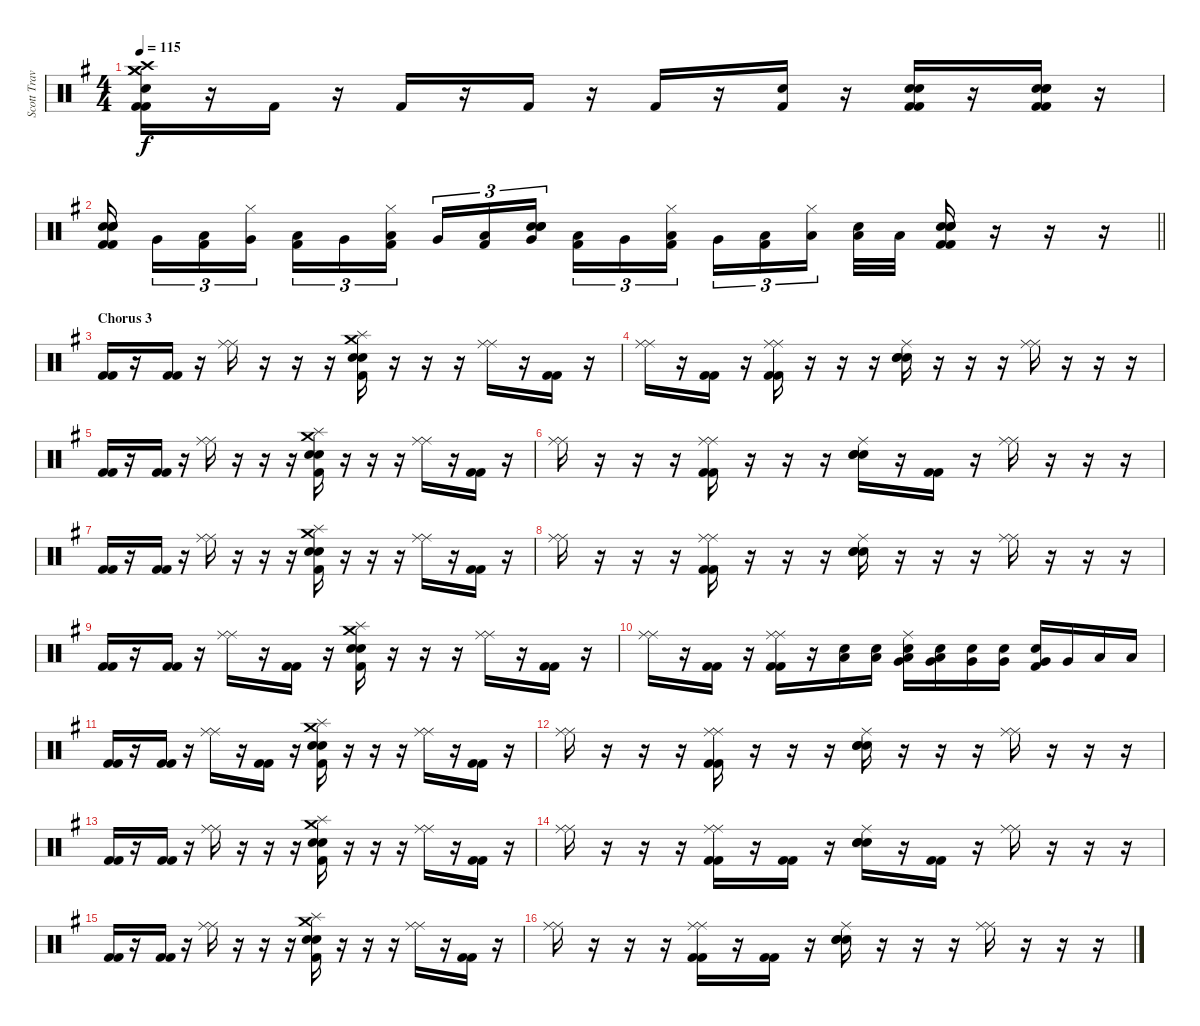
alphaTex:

\track ("Scott Travis" "Scott Trav") {instrument percussion}
\staff {score}
\articulation defaults
\ts (4 4)
\tempo 115
\clef neutral
\ks eminor
("Crash high (hit)" "Crash medium (hit)" "Crash medium (hit)" "Snare (hit) 2" "Kick (hit) 2" "Kick (hit) 2").16{dy f} r.16 "Kick (hit) 2".16 r.16 "Kick (hit) 2".16 r.16 "Kick (hit) 2".16 r.16 "Kick (hit) 2".16 r.16 ("Snare (hit) 2" "Kick (hit) 2").16 r.16 ("Snare (hit) 2" "Snare (hit) 2" "Kick (hit) 2" "Kick (hit) 2").16 r.16 ("Snare (hit) 2" "Snare (hit) 2" "Snare (hit) 2" "Kick (hit) 2" "Kick (hit) 2").16 r.16 |
\barLineRight lightlight
("Snare (hit) 2" "Snare (hit) 2" "Snare (hit) 2" "Kick (hit) 2" "Kick (hit) 2").16 "Very Low Tom (hit)".16{tu (3 2)} ("Low Floor Tom (hit)" "Kick (hit) 2").16{tu (3 2)} ("Hi-Hat (closed)" "Very Low Tom (hit)").16{tu (3 2)} ("Low Floor Tom (hit)" "Kick (hit) 2").16{tu (3 2)} "Very Low Tom (hit)".16{tu (3 2)} ("Hi-Hat (closed)" "Low Floor Tom (hit)" "Kick (hit) 2").16{tu (3 2)} "Very Low Tom (hit)".16{tu (3 2)} ("Low Floor Tom (hit)" "Kick (hit) 2").16{tu (3 2)} ("Snare (hit) 2" "Snare (hit) 2" "Snare (hit) 2" "Very Low Tom (hit)").16{tu (3 2)} ("Low Floor Tom (hit)" "Kick (hit) 2").16{tu (3 2)} "Very Low Tom (hit)".16{tu (3 2)} ("Hi-Hat (closed)" "Low Floor Tom (hit)" "Kick (hit) 2").16{tu (3 2)} "Very Low Tom (hit)".16{tu (3 2)} ("Low Tom (hit)" "Kick (hit) 2").16{tu (3 2)} ("Hi-Hat (closed)" "Low Floor Tom (hit)").16{tu (3 2)} ("Low Tom (hit)" "Snare (hit) 2").32 "Low Floor Tom (hit)".32 ("Snare (hit) 2" "Snare (hit) 2" "Snare (hit) 2" "Kick (hit) 2" "Kick (hit) 2").16 r.16 r.16 r.16 |
\section ("" "Chorus 3")
("Kick (hit) 2" "Kick (hit) 2").16 r.16 ("Kick (hit) 2" "Kick (hit) 2").16 r.16 ("Ride (middle)" "Ride (middle)").16 r.16 r.16 r.16 ("Crash medium (hit)" "Splash (hit)" "Snare (hit) 2" "Snare (hit) 2" "Kick (hit) 2").16 r.16 r.16 r.16 ("Ride (middle)" "Ride (middle)").16 r.16 ("Kick (hit) 2" "Kick (hit) 2").16 r.16 |
("Ride (middle)" "Ride (middle)").16 r.16 ("Kick (hit) 2" "Kick (hit) 2").16 r.16 ("Ride (middle)" "Ride (middle)" "Kick (hit) 2" "Kick (hit) 2").16 r.16 r.16 r.16 ("Ride (middle)" "Snare (hit) 2" "Snare (hit) 2" "Snare (hit) 2").16 r.16 r.16 r.16 ("Ride (middle)" "Ride (middle)").16 r.16 r.16 r.16 |
("Kick (hit) 2" "Kick (hit) 2").16 r.16 ("Kick (hit) 2" "Kick (hit) 2").16 r.16 ("Ride (middle)" "Ride (middle)").16 r.16 r.16 r.16 ("Crash medium (hit)" "Splash (hit)" "Snare (hit) 2" "Snare (hit) 2" "Kick (hit) 2").16 r.16 r.16 r.16 ("Ride (middle)" "Ride (middle)").16 r.16 ("Kick (hit) 2" "Kick (hit) 2").16 r.16 |
("Ride (middle)" "Ride (middle)").16 r.16 r.16 r.16 ("Ride (middle)" "Ride (middle)" "Kick (hit) 2" "Kick (hit) 2").16 r.16 r.16 r.16 ("Ride (middle)" "Snare (hit) 2" "Snare (hit) 2" "Snare (hit) 2").16 r.16 ("Kick (hit) 2" "Kick (hit) 2").16 r.16 ("Ride (middle)" "Ride (middle)").16 r.16 r.16 r.16 |
("Kick (hit) 2" "Kick (hit) 2").16 r.16 ("Kick (hit) 2" "Kick (hit) 2").16 r.16 ("Ride (middle)" "Ride (middle)").16 r.16 r.16 r.16 ("Crash medium (hit)" "Splash (hit)" "Snare (hit) 2" "Snare (hit) 2" "Kick (hit) 2").16 r.16 r.16 r.16 ("Ride (middle)" "Ride (middle)").16 r.16 ("Kick (hit) 2" "Kick (hit) 2").16 r.16 |
("Ride (middle)" "Ride (middle)").16 r.16 r.16 r.16 ("Ride (middle)" "Ride (middle)" "Kick (hit) 2" "Kick (hit) 2").16 r.16 r.16 r.16 ("Ride (middle)" "Snare (hit) 2" "Snare (hit) 2" "Snare (hit) 2").16 r.16 r.16 r.16 ("Ride (middle)" "Ride (middle)").16 r.16 r.16 r.16 |
("Kick (hit) 2" "Kick (hit) 2").16 r.16 ("Kick (hit) 2" "Kick (hit) 2").16 r.16 ("Ride (middle)" "Ride (middle)").16 r.16 ("Kick (hit) 2" "Kick (hit) 2").16 r.16 ("Crash medium (hit)" "Splash (hit)" "Snare (hit) 2" "Snare (hit) 2" "Kick (hit) 2").16 r.16 r.16 r.16 ("Ride (middle)" "Ride (middle)").16 r.16 ("Kick (hit) 2" "Kick (hit) 2").16 r.16 |
("Ride (middle)" "Ride (middle)").16 r.16 ("Kick (hit) 2" "Kick (hit) 2").16 r.16 ("Ride (middle)" "Ride (middle)" "Kick (hit) 2" "Kick (hit) 2").16 r.16 ("Snare (hit) 2" "Low Tom (hit)").16 ("Snare (hit) 2" "Low Tom (hit)").16 ("Ride (middle)" "Snare (hit) 2" "Low Tom (hit)" "Very Low Tom (hit)").16 ("Snare (hit) 2" "Low Tom (hit)" "Very Low Tom (hit)").16 ("Snare (hit) 2" "Very Low Tom (hit)").16 ("Snare (hit) 2" "Very Low Tom (hit)").16 ("Snare (hit) 2" "Very Low Tom (hit)" "Kick (hit) 2").16 "Very Low Tom (hit)".16 "Low Floor Tom (hit)".16 "Low Floor Tom (hit)".16 |
("Kick (hit) 2" "Kick (hit) 2").16 r.16 ("Kick (hit) 2" "Kick (hit) 2").16 r.16 ("Ride (middle)" "Ride (middle)").16 r.16 ("Kick (hit) 2" "Kick (hit) 2").16 r.16 ("Crash medium (hit)" "Splash (hit)" "Snare (hit) 2" "Snare (hit) 2" "Kick (hit) 2").16 r.16 r.16 r.16 ("Ride (middle)" "Ride (middle)").16 r.16 ("Kick (hit) 2" "Kick (hit) 2").16 r.16 |
("Ride (middle)" "Ride (middle)").16 r.16 r.16 r.16 ("Ride (middle)" "Ride (middle)" "Kick (hit) 2" "Kick (hit) 2").16 r.16 r.16 r.16 ("Ride (middle)" "Snare (hit) 2" "Snare (hit) 2" "Snare (hit) 2").16 r.16 r.16 r.16 ("Ride (middle)" "Ride (middle)").16 r.16 r.16 r.16 |
("Kick (hit) 2" "Kick (hit) 2").16 r.16 ("Kick (hit) 2" "Kick (hit) 2").16 r.16 ("Ride (middle)" "Ride (middle)").16 r.16 r.16 r.16 ("Crash medium (hit)" "Splash (hit)" "Snare (hit) 2" "Snare (hit) 2" "Kick (hit) 2").16 r.16 r.16 r.16 ("Ride (middle)" "Ride (middle)").16 r.16 ("Kick (hit) 2" "Kick (hit) 2").16 r.16 |
("Ride (middle)" "Ride (middle)").16 r.16 r.16 r.16 ("Ride (middle)" "Ride (middle)" "Kick (hit) 2" "Kick (hit) 2").16 r.16 ("Kick (hit) 2" "Kick (hit) 2").16 r.16 ("Ride (middle)" "Snare (hit) 2" "Snare (hit) 2" "Snare (hit) 2").16 r.16 ("Kick (hit) 2" "Kick (hit) 2").16 r.16 ("Ride (middle)" "Ride (middle)").16 r.16 r.16 r.16 |
("Kick (hit) 2" "Kick (hit) 2").16 r.16 ("Kick (hit) 2" "Kick (hit) 2").16 r.16 ("Ride (middle)" "Ride (middle)").16 r.16 r.16 r.16 ("Crash medium (hit)" "Splash (hit)" "Snare (hit) 2" "Snare (hit) 2" "Kick (hit) 2").16 r.16 r.16 r.16 ("Ride (middle)" "Ride (middle)").16 r.16 ("Kick (hit) 2" "Kick (hit) 2").16 r.16 |
("Ride (middle)" "Ride (middle)").16 r.16 r.16 r.16 ("Ride (middle)" "Ride (middle)" "Kick (hit) 2" "Kick (hit) 2").16 r.16 ("Kick (hit) 2" "Kick (hit) 2").16 r.16 ("Ride (middle)" "Snare (hit) 2" "Snare (hit) 2" "Snare (hit) 2").16 r.16 r.16 r.16 ("Ride (middle)" "Ride (middle)").16 r.16 r.16 r.16
